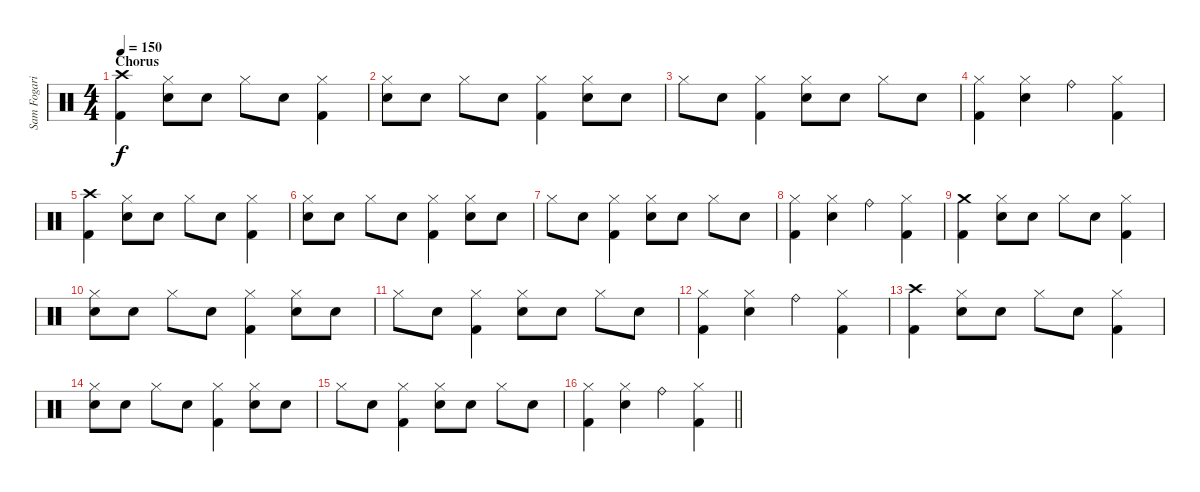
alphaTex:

\track ("Sam Fogarino" "Sam Fogari") {instrument percussion}
\staff {score}
\articulation defaults
\ts (4 4)
\section ("" "Chorus")
\tempo 150
\clef neutral
\ks c
("Crash high (hit)" "Kick (hit) 2").4{dy f} ("Hi-Hat (closed)" "Electric Snare (hit)").8 "Electric Snare (hit)".8 "Hi-Hat (closed)".8 "Electric Snare (hit)".8 ("Hi-Hat (closed)" "Kick (hit) 2").4 |
("Hi-Hat (closed)" "Electric Snare (hit)").8 "Electric Snare (hit)".8 "Hi-Hat (closed)".8 "Electric Snare (hit)".8 ("Hi-Hat (closed)" "Kick (hit) 2").4 ("Hi-Hat (closed)" "Electric Snare (hit)").8 "Electric Snare (hit)".8 |
"Hi-Hat (closed)".8 "Electric Snare (hit)".8 ("Hi-Hat (closed)" "Kick (hit) 2").4 ("Hi-Hat (closed)" "Electric Snare (hit)").8 "Electric Snare (hit)".8 "Hi-Hat (closed)".8 "Electric Snare (hit)".8 |
("Hi-Hat (closed)" "Kick (hit) 2").4 ("Hi-Hat (closed)" "Electric Snare (hit)").4 "Ride (bell)".4 ("Hi-Hat (closed)" "Kick (hit) 2").4 |
("Crash high (hit)" "Kick (hit) 2").4 ("Hi-Hat (closed)" "Electric Snare (hit)").8 "Electric Snare (hit)".8 "Hi-Hat (closed)".8 "Electric Snare (hit)".8 ("Hi-Hat (closed)" "Kick (hit) 2").4 |
("Hi-Hat (closed)" "Electric Snare (hit)").8 "Electric Snare (hit)".8 "Hi-Hat (closed)".8 "Electric Snare (hit)".8 ("Hi-Hat (closed)" "Kick (hit) 2").4 ("Hi-Hat (closed)" "Electric Snare (hit)").8 "Electric Snare (hit)".8 |
"Hi-Hat (closed)".8 "Electric Snare (hit)".8 ("Hi-Hat (closed)" "Kick (hit) 2").4 ("Hi-Hat (closed)" "Electric Snare (hit)").8 "Electric Snare (hit)".8 "Hi-Hat (closed)".8 "Electric Snare (hit)".8 |
("Hi-Hat (closed)" "Kick (hit) 2").4 ("Hi-Hat (closed)" "Electric Snare (hit)").4 "Ride (bell)".4 ("Hi-Hat (closed)" "Kick (hit) 2").4 |
("Crash medium (hit)" "Kick (hit) 2").4 ("Hi-Hat (closed)" "Electric Snare (hit)").8 "Electric Snare (hit)".8 "Hi-Hat (closed)".8 "Electric Snare (hit)".8 ("Hi-Hat (closed)" "Kick (hit) 2").4 |
("Hi-Hat (closed)" "Electric Snare (hit)").8 "Electric Snare (hit)".8 "Hi-Hat (closed)".8 "Electric Snare (hit)".8 ("Hi-Hat (closed)" "Kick (hit) 2").4 ("Hi-Hat (closed)" "Electric Snare (hit)").8 "Electric Snare (hit)".8 |
"Hi-Hat (closed)".8 "Electric Snare (hit)".8 ("Hi-Hat (closed)" "Kick (hit) 2").4 ("Hi-Hat (closed)" "Electric Snare (hit)").8 "Electric Snare (hit)".8 "Hi-Hat (closed)".8 "Electric Snare (hit)".8 |
("Hi-Hat (closed)" "Kick (hit) 2").4 ("Hi-Hat (closed)" "Electric Snare (hit)").4 "Ride (bell)".4 ("Hi-Hat (closed)" "Kick (hit) 2").4 |
("Crash high (hit)" "Kick (hit) 2").4 ("Hi-Hat (closed)" "Electric Snare (hit)").8 "Electric Snare (hit)".8 "Hi-Hat (closed)".8 "Electric Snare (hit)".8 ("Hi-Hat (closed)" "Kick (hit) 2").4 |
("Hi-Hat (closed)" "Electric Snare (hit)").8 "Electric Snare (hit)".8 "Hi-Hat (closed)".8 "Electric Snare (hit)".8 ("Hi-Hat (closed)" "Kick (hit) 2").4 ("Hi-Hat (closed)" "Electric Snare (hit)").8 "Electric Snare (hit)".8 |
"Hi-Hat (closed)".8 "Electric Snare (hit)".8 ("Hi-Hat (closed)" "Kick (hit) 2").4 ("Hi-Hat (closed)" "Electric Snare (hit)").8 "Electric Snare (hit)".8 "Hi-Hat (closed)".8 "Electric Snare (hit)".8 |
\barLineRight lightlight
("Hi-Hat (closed)" "Kick (hit) 2").4 ("Hi-Hat (closed)" "Electric Snare (hit)").4 "Ride (bell)".4 ("Hi-Hat (closed)" "Kick (hit) 2").4
